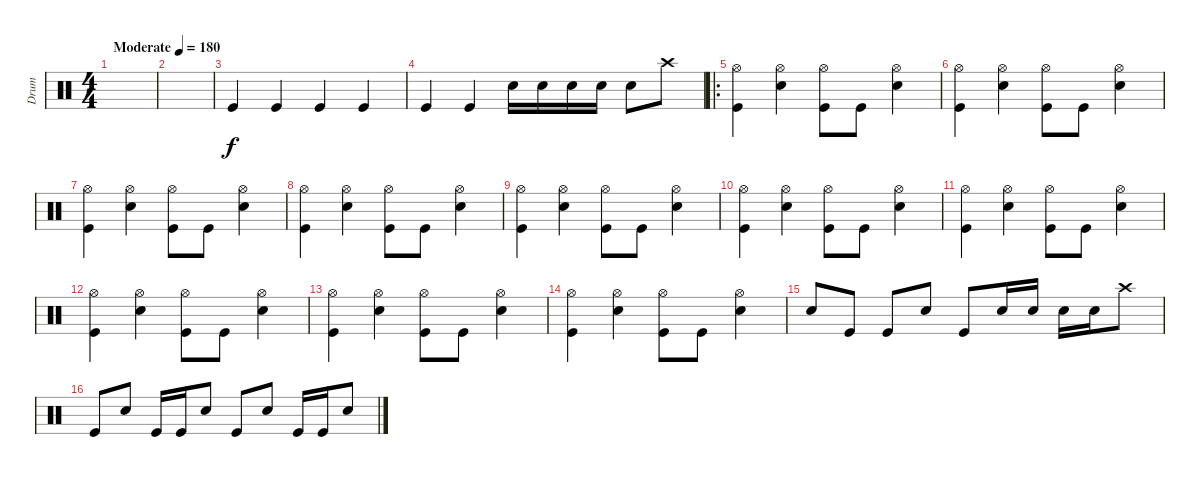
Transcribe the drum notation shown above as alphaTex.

\track ("Drum" "Drum") {instrument percussion}
\staff {score}
\articulation defaults
\ts (4 4)
\tempo (180 "Moderate")
\clef neutral
\ks c
|
|
"Kick (hit)".4 "Kick (hit)".4 "Kick (hit)".4 "Kick (hit)".4 |
"Kick (hit)".4 "Kick (hit)".4 "Snare (hit) 2".16 "Snare (hit) 2".16 "Snare (hit) 2".16 "Snare (hit) 2".16 "Snare (hit) 2".8 "Crash high (hit)".8 |
\ro
("Hi-Hat (open)" "Kick (hit)").4 ("Hi-Hat (open)" "Snare (hit) 2").4 ("Hi-Hat (open)" "Kick (hit)").8 "Kick (hit)".8 ("Hi-Hat (open)" "Snare (hit) 2").4 |
("Hi-Hat (open)" "Kick (hit)").4 ("Hi-Hat (open)" "Snare (hit) 2").4 ("Hi-Hat (open)" "Kick (hit)").8 "Kick (hit)".8 ("Hi-Hat (open)" "Snare (hit) 2").4 |
("Hi-Hat (open)" "Kick (hit)").4 ("Hi-Hat (open)" "Snare (hit) 2").4 ("Hi-Hat (open)" "Kick (hit)").8 "Kick (hit)".8 ("Hi-Hat (open)" "Snare (hit) 2").4 |
("Hi-Hat (open)" "Kick (hit)").4 ("Hi-Hat (open)" "Snare (hit) 2").4 ("Hi-Hat (open)" "Kick (hit)").8 "Kick (hit)".8 ("Hi-Hat (open)" "Snare (hit) 2").4 |
("Hi-Hat (open)" "Kick (hit)").4 ("Hi-Hat (open)" "Snare (hit) 2").4 ("Hi-Hat (open)" "Kick (hit)").8 "Kick (hit)".8 ("Hi-Hat (open)" "Snare (hit) 2").4 |
("Hi-Hat (open)" "Kick (hit)").4 ("Hi-Hat (open)" "Snare (hit) 2").4 ("Hi-Hat (open)" "Kick (hit)").8 "Kick (hit)".8 ("Hi-Hat (open)" "Snare (hit) 2").4 |
("Hi-Hat (open)" "Kick (hit)").4 ("Hi-Hat (open)" "Snare (hit) 2").4 ("Hi-Hat (open)" "Kick (hit)").8 "Kick (hit)".8 ("Hi-Hat (open)" "Snare (hit) 2").4 |
("Hi-Hat (open)" "Kick (hit)").4 ("Hi-Hat (open)" "Snare (hit) 2").4 ("Hi-Hat (open)" "Kick (hit)").8 "Kick (hit)".8 ("Hi-Hat (open)" "Snare (hit) 2").4 |
("Hi-Hat (open)" "Kick (hit)").4 ("Hi-Hat (open)" "Snare (hit) 2").4 ("Hi-Hat (open)" "Kick (hit)").8 "Kick (hit)".8 ("Hi-Hat (open)" "Snare (hit) 2").4 |
("Hi-Hat (open)" "Kick (hit)").4 ("Hi-Hat (open)" "Snare (hit) 2").4 ("Hi-Hat (open)" "Kick (hit)").8 "Kick (hit)".8 ("Hi-Hat (open)" "Snare (hit) 2").4 |
"Snare (hit) 2".8 "Kick (hit)".8 "Kick (hit)".8 "Snare (hit) 2".8 "Kick (hit)".8 "Snare (hit) 2".16 "Snare (hit) 2".16 "Snare (hit) 2".16 "Snare (hit) 2".16 "Crash high (hit)".8 |
"Kick (hit)".8 "Snare (hit) 2".8 "Kick (hit)".16 "Kick (hit)".16 "Snare (hit) 2".8 "Kick (hit)".8 "Snare (hit) 2".8 "Kick (hit)".16 "Kick (hit)".16 "Snare (hit) 2".8
